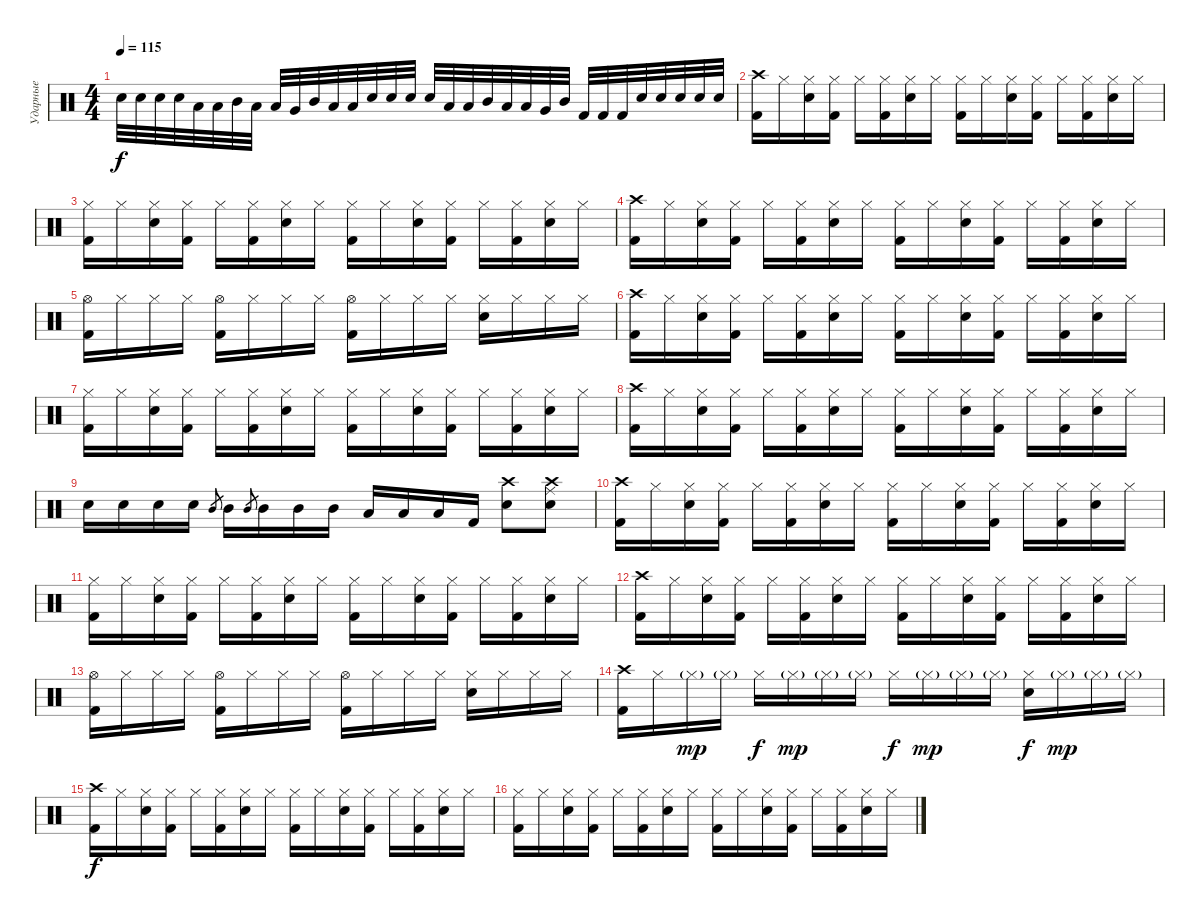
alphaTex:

\track ("Ударные" "Ударные") {instrument percussion}
\staff {score}
\articulation defaults
\ts (4 4)
\tempo 115
\clef neutral
\ks c "Electric Snare (hit)".32{dy f} "Electric Snare (hit)".32 "Electric Snare (hit)".32 "Electric Snare (hit)".32 "Low Tom (hit)".32 "Low Tom (hit)".32 "Mid Tom (hit)".32 "Low Tom (hit)".32 "Low Tom (hit)".32 "Very Low Tom (hit)".32 "Mid Tom (hit)".32 "Low Tom (hit)".32 "Low Tom (hit)".32 "Electric Snare (hit)".32 "Electric Snare (hit)".32 "Electric Snare (hit)".32 "Electric Snare (hit)".32 "Low Tom (hit)".32 "Low Tom (hit)".32 "Mid Tom (hit)".32 "Low Tom (hit)".32 "Low Tom (hit)".32 "Very Low Tom (hit)".32 "Mid Tom (hit)".32 "Kick (hit) 2".32 "Kick (hit) 2".32 "Kick (hit) 2".32 "Electric Snare (hit)".32 "Electric Snare (hit)".32 "Electric Snare (hit)".32 "Electric Snare (hit)".32 "Electric Snare (hit)".32
|
("Kick (hit) 2" "Crash high (hit)").16 "Hi-Hat (closed)".16 ("Electric Snare (hit)" "Hi-Hat (closed)").16 ("Kick (hit) 2" "Hi-Hat (closed)").16 "Hi-Hat (closed)".16 ("Kick (hit) 2" "Hi-Hat (closed)").16 ("Electric Snare (hit)" "Hi-Hat (closed)").16 "Hi-Hat (closed)".16 ("Kick (hit) 2" "Hi-Hat (closed)").16 "Hi-Hat (closed)".16 ("Electric Snare (hit)" "Hi-Hat (closed)").16 ("Kick (hit) 2" "Hi-Hat (closed)").16 "Hi-Hat (closed)".16 ("Kick (hit) 2" "Hi-Hat (closed)").16 ("Electric Snare (hit)" "Hi-Hat (closed)").16 "Hi-Hat (closed)".16 |
("Kick (hit) 2" "Hi-Hat (closed)").16 "Hi-Hat (closed)".16 ("Electric Snare (hit)" "Hi-Hat (closed)").16 ("Kick (hit) 2" "Hi-Hat (closed)").16 "Hi-Hat (closed)".16 ("Kick (hit) 2" "Hi-Hat (closed)").16 ("Electric Snare (hit)" "Hi-Hat (closed)").16 "Hi-Hat (closed)".16 ("Kick (hit) 2" "Hi-Hat (closed)").16 "Hi-Hat (closed)".16 ("Electric Snare (hit)" "Hi-Hat (closed)").16 ("Kick (hit) 2" "Hi-Hat (closed)").16 "Hi-Hat (closed)".16 ("Kick (hit) 2" "Hi-Hat (closed)").16 ("Electric Snare (hit)" "Hi-Hat (closed)").16 "Hi-Hat (closed)".16 |
("Kick (hit) 2" "Crash high (hit)").16 "Hi-Hat (closed)".16 ("Electric Snare (hit)" "Hi-Hat (closed)").16 ("Kick (hit) 2" "Hi-Hat (closed)").16 "Hi-Hat (closed)".16 ("Kick (hit) 2" "Hi-Hat (closed)").16 ("Electric Snare (hit)" "Hi-Hat (closed)").16 "Hi-Hat (closed)".16 ("Kick (hit) 2" "Hi-Hat (closed)").16 "Hi-Hat (closed)".16 ("Electric Snare (hit)" "Hi-Hat (closed)").16 ("Kick (hit) 2" "Hi-Hat (closed)").16 "Hi-Hat (closed)".16 ("Kick (hit) 2" "Hi-Hat (closed)").16 ("Electric Snare (hit)" "Hi-Hat (closed)").16 "Hi-Hat (closed)".16 |
("Kick (hit) 2" "Hi-Hat (open)").16 "Hi-Hat (closed)".16 "Hi-Hat (closed)".16 "Hi-Hat (closed)".16 ("Kick (hit) 2" "Hi-Hat (open)").16 "Hi-Hat (closed)".16 "Hi-Hat (closed)".16 "Hi-Hat (closed)".16 ("Kick (hit) 2" "Hi-Hat (open)").16 "Hi-Hat (closed)".16 "Hi-Hat (closed)".16 "Hi-Hat (closed)".16 ("Electric Snare (hit)" "Hi-Hat (closed)").16 "Hi-Hat (closed)".16 "Hi-Hat (closed)".16 "Hi-Hat (closed)".16 |
("Kick (hit) 2" "Crash high (hit)").16 "Hi-Hat (closed)".16 ("Electric Snare (hit)" "Hi-Hat (closed)").16 ("Kick (hit) 2" "Hi-Hat (closed)").16 "Hi-Hat (closed)".16 ("Kick (hit) 2" "Hi-Hat (closed)").16 ("Electric Snare (hit)" "Hi-Hat (closed)").16 "Hi-Hat (closed)".16 ("Kick (hit) 2" "Hi-Hat (closed)").16 "Hi-Hat (closed)".16 ("Electric Snare (hit)" "Hi-Hat (closed)").16 ("Kick (hit) 2" "Hi-Hat (closed)").16 "Hi-Hat (closed)".16 ("Kick (hit) 2" "Hi-Hat (closed)").16 ("Electric Snare (hit)" "Hi-Hat (closed)").16 "Hi-Hat (closed)".16 |
("Kick (hit) 2" "Hi-Hat (closed)").16 "Hi-Hat (closed)".16 ("Electric Snare (hit)" "Hi-Hat (closed)").16 ("Kick (hit) 2" "Hi-Hat (closed)").16 "Hi-Hat (closed)".16 ("Kick (hit) 2" "Hi-Hat (closed)").16 ("Electric Snare (hit)" "Hi-Hat (closed)").16 "Hi-Hat (closed)".16 ("Kick (hit) 2" "Hi-Hat (closed)").16 "Hi-Hat (closed)".16 ("Electric Snare (hit)" "Hi-Hat (closed)").16 ("Kick (hit) 2" "Hi-Hat (closed)").16 "Hi-Hat (closed)".16 ("Kick (hit) 2" "Hi-Hat (closed)").16 ("Electric Snare (hit)" "Hi-Hat (closed)").16 "Hi-Hat (closed)".16 |
("Kick (hit) 2" "Crash high (hit)").16 "Hi-Hat (closed)".16 ("Electric Snare (hit)" "Hi-Hat (closed)").16 ("Kick (hit) 2" "Hi-Hat (closed)").16 "Hi-Hat (closed)".16 ("Kick (hit) 2" "Hi-Hat (closed)").16 ("Electric Snare (hit)" "Hi-Hat (closed)").16 "Hi-Hat (closed)".16 ("Kick (hit) 2" "Hi-Hat (closed)").16 "Hi-Hat (closed)".16 ("Electric Snare (hit)" "Hi-Hat (closed)").16 ("Kick (hit) 2" "Hi-Hat (closed)").16 "Hi-Hat (closed)".16 ("Kick (hit) 2" "Hi-Hat (closed)").16 ("Electric Snare (hit)" "Hi-Hat (closed)").16 "Hi-Hat (closed)".16 |
"Electric Snare (hit)".16 "Electric Snare (hit)".16 "Electric Snare (hit)".16 "Electric Snare (hit)".16 "Mid Tom (hit)".8{gr} "Mid Tom (hit)".16 "Mid Tom (hit)".8{gr} "Mid Tom (hit)".16 "Mid Tom (hit)".16 "Mid Tom (hit)".16 "Low Tom (hit)".16 "Low Tom (hit)".16 "Low Tom (hit)".16 "Kick (hit) 2".16 ("Electric Snare (hit)" "Crash high (hit)").8 ("Electric Snare (hit)" "Crash high (hit)" "Ride (middle)").8 |
("Kick (hit) 2" "Crash high (hit)").16 "Hi-Hat (closed)".16 ("Electric Snare (hit)" "Hi-Hat (closed)").16 ("Kick (hit) 2" "Hi-Hat (closed)").16 "Hi-Hat (closed)".16 ("Kick (hit) 2" "Hi-Hat (closed)").16 ("Electric Snare (hit)" "Hi-Hat (closed)").16 "Hi-Hat (closed)".16 ("Kick (hit) 2" "Hi-Hat (closed)").16 "Hi-Hat (closed)".16 ("Electric Snare (hit)" "Hi-Hat (closed)").16 ("Kick (hit) 2" "Hi-Hat (closed)").16 "Hi-Hat (closed)".16 ("Kick (hit) 2" "Hi-Hat (closed)").16 ("Electric Snare (hit)" "Hi-Hat (closed)").16 "Hi-Hat (closed)".16 |
("Kick (hit) 2" "Hi-Hat (closed)").16 "Hi-Hat (closed)".16 ("Electric Snare (hit)" "Hi-Hat (closed)").16 ("Kick (hit) 2" "Hi-Hat (closed)").16 "Hi-Hat (closed)".16 ("Kick (hit) 2" "Hi-Hat (closed)").16 ("Electric Snare (hit)" "Hi-Hat (closed)").16 "Hi-Hat (closed)".16 ("Kick (hit) 2" "Hi-Hat (closed)").16 "Hi-Hat (closed)".16 ("Electric Snare (hit)" "Hi-Hat (closed)").16 ("Kick (hit) 2" "Hi-Hat (closed)").16 "Hi-Hat (closed)".16 ("Kick (hit) 2" "Hi-Hat (closed)").16 ("Electric Snare (hit)" "Hi-Hat (closed)").16 "Hi-Hat (closed)".16 |
("Kick (hit) 2" "Crash high (hit)").16 "Hi-Hat (closed)".16 ("Electric Snare (hit)" "Hi-Hat (closed)").16 ("Kick (hit) 2" "Hi-Hat (closed)").16 "Hi-Hat (closed)".16 ("Kick (hit) 2" "Hi-Hat (closed)").16 ("Electric Snare (hit)" "Hi-Hat (closed)").16 "Hi-Hat (closed)".16 ("Kick (hit) 2" "Hi-Hat (closed)").16 "Hi-Hat (closed)".16 ("Electric Snare (hit)" "Hi-Hat (closed)").16 ("Kick (hit) 2" "Hi-Hat (closed)").16 "Hi-Hat (closed)".16 ("Kick (hit) 2" "Hi-Hat (closed)").16 ("Electric Snare (hit)" "Hi-Hat (closed)").16 "Hi-Hat (closed)".16 |
("Kick (hit) 2" "Hi-Hat (open)").16 "Hi-Hat (closed)".16 "Hi-Hat (closed)".16 "Hi-Hat (closed)".16 ("Kick (hit) 2" "Hi-Hat (open)").16 "Hi-Hat (closed)".16 "Hi-Hat (closed)".16 "Hi-Hat (closed)".16 ("Kick (hit) 2" "Hi-Hat (open)").16 "Hi-Hat (closed)".16 "Hi-Hat (closed)".16 "Hi-Hat (closed)".16 ("Electric Snare (hit)" "Hi-Hat (closed)").16 "Hi-Hat (closed)".16 "Hi-Hat (closed)".16 "Hi-Hat (closed)".16 |
("Kick (hit) 2" "Crash high (hit)").16 "Hi-Hat (closed)".16 "Hi-Hat (closed)"{g}.16{dy mp} "Hi-Hat (closed)"{g}.16 "Hi-Hat (closed)".16{dy f} "Hi-Hat (closed)"{g}.16{dy mp} "Hi-Hat (closed)"{g}.16 "Hi-Hat (closed)"{g}.16 "Hi-Hat (closed)".16{dy f} "Hi-Hat (closed)"{g}.16{dy mp} "Hi-Hat (closed)"{g}.16 "Hi-Hat (closed)"{g}.16 ("Electric Snare (hit)" "Hi-Hat (closed)").16{dy f} "Hi-Hat (closed)"{g}.16{dy mp} "Hi-Hat (closed)"{g}.16 "Hi-Hat (closed)"{g}.16 |
("Kick (hit) 2" "Crash high (hit)").16{dy f} "Hi-Hat (closed)".16 ("Electric Snare (hit)" "Hi-Hat (closed)").16 ("Kick (hit) 2" "Hi-Hat (closed)").16 "Hi-Hat (closed)".16 ("Kick (hit) 2" "Hi-Hat (closed)").16 ("Electric Snare (hit)" "Hi-Hat (closed)").16 "Hi-Hat (closed)".16 ("Kick (hit) 2" "Hi-Hat (closed)").16 "Hi-Hat (closed)".16 ("Electric Snare (hit)" "Hi-Hat (closed)").16 ("Kick (hit) 2" "Hi-Hat (closed)").16 "Hi-Hat (closed)".16 ("Kick (hit) 2" "Hi-Hat (closed)").16 ("Electric Snare (hit)" "Hi-Hat (closed)").16 "Hi-Hat (closed)".16 |
("Kick (hit) 2" "Hi-Hat (closed)").16 "Hi-Hat (closed)".16 ("Electric Snare (hit)" "Hi-Hat (closed)").16 ("Kick (hit) 2" "Hi-Hat (closed)").16 "Hi-Hat (closed)".16 ("Kick (hit) 2" "Hi-Hat (closed)").16 ("Electric Snare (hit)" "Hi-Hat (closed)").16 "Hi-Hat (closed)".16 ("Kick (hit) 2" "Hi-Hat (closed)").16 "Hi-Hat (closed)".16 ("Electric Snare (hit)" "Hi-Hat (closed)").16 ("Kick (hit) 2" "Hi-Hat (closed)").16 "Hi-Hat (closed)".16 ("Kick (hit) 2" "Hi-Hat (closed)").16 ("Electric Snare (hit)" "Hi-Hat (closed)").16 "Hi-Hat (closed)".16
